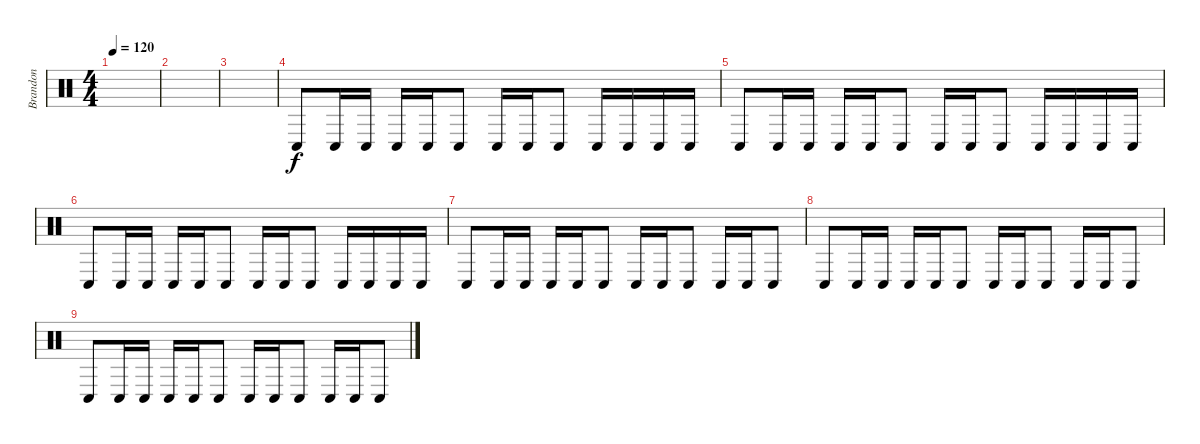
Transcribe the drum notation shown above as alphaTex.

\track ("Brandon" "Brandon") {instrument percussion}
\staff {score}
\articulation defaults
\ts (4 4)
\tempo 120
\clef neutral
\ks c
|
|
|
"Conga low (hit)".8 "Conga low (hit)".16 "Conga low (hit)".16 "Conga low (hit)".16 "Conga low (hit)".16 "Conga low (hit)".8 "Conga low (hit)".16 "Conga low (hit)".16 "Conga low (hit)".8 "Conga low (hit)".16 "Conga low (hit)".16 "Conga low (hit)".16 "Conga low (hit)".16 |
"Conga low (hit)".8 "Conga low (hit)".16 "Conga low (hit)".16 "Conga low (hit)".16 "Conga low (hit)".16 "Conga low (hit)".8 "Conga low (hit)".16 "Conga low (hit)".16 "Conga low (hit)".8 "Conga low (hit)".16 "Conga low (hit)".16 "Conga low (hit)".16 "Conga low (hit)".16 |
"Conga low (hit)".8 "Conga low (hit)".16 "Conga low (hit)".16 "Conga low (hit)".16 "Conga low (hit)".16 "Conga low (hit)".8 "Conga low (hit)".16 "Conga low (hit)".16 "Conga low (hit)".8 "Conga low (hit)".16 "Conga low (hit)".16 "Conga low (hit)".16 "Conga low (hit)".16 |
"Conga low (hit)".8 "Conga low (hit)".16 "Conga low (hit)".16 "Conga low (hit)".16 "Conga low (hit)".16 "Conga low (hit)".8 "Conga low (hit)".16 "Conga low (hit)".16 "Conga low (hit)".8 "Conga low (hit)".16 "Conga low (hit)".16 "Conga low (hit)".8 |
"Conga low (hit)".8 "Conga low (hit)".16 "Conga low (hit)".16 "Conga low (hit)".16 "Conga low (hit)".16 "Conga low (hit)".8 "Conga low (hit)".16 "Conga low (hit)".16 "Conga low (hit)".8 "Conga low (hit)".16 "Conga low (hit)".16 "Conga low (hit)".8 |
"Conga low (hit)".8 "Conga low (hit)".16 "Conga low (hit)".16 "Conga low (hit)".16 "Conga low (hit)".16 "Conga low (hit)".8 "Conga low (hit)".16 "Conga low (hit)".16 "Conga low (hit)".8 "Conga low (hit)".16 "Conga low (hit)".16 "Conga low (hit)".8
